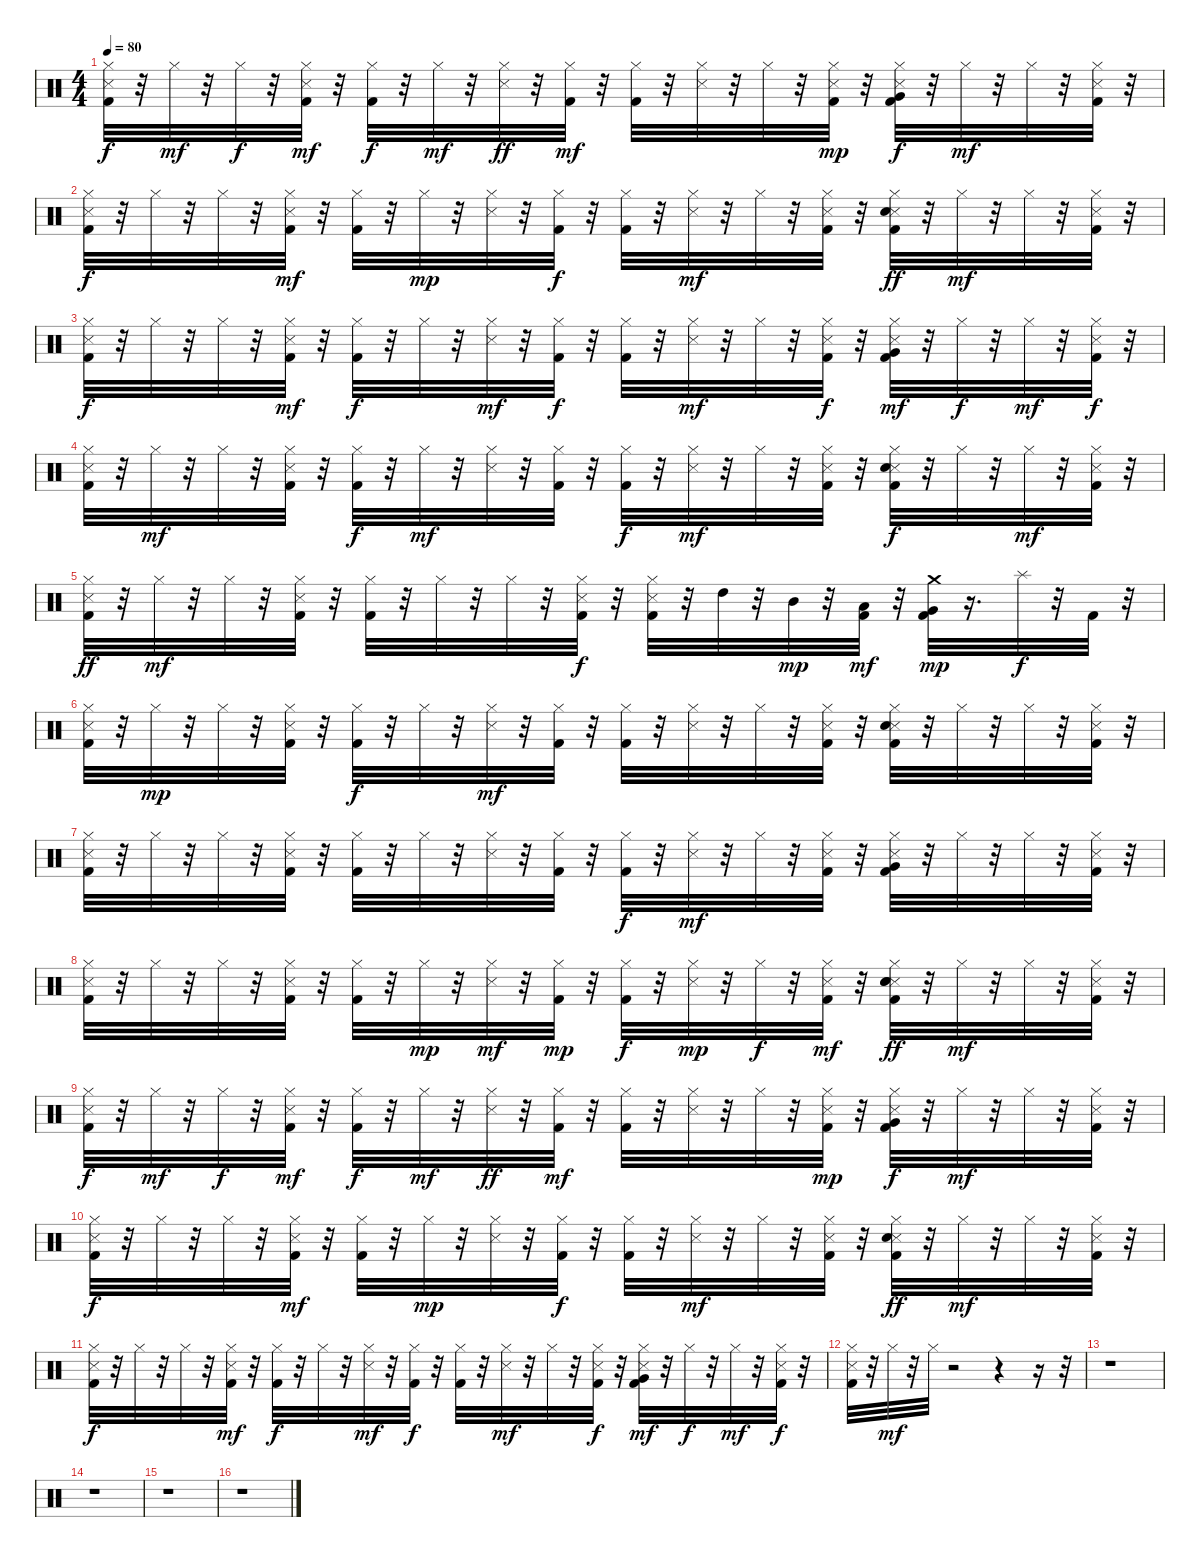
\track "" {instrument percussion}
\staff {score}
\articulation defaults
\ts (4 4)
\tempo 80
\clef neutral
\ks c
("Kick (hit) 2" "Snare (side stick) 3" "Hi-Hat (closed)").32{dy f} r.32 "Hi-Hat (closed)".32{dy mf} r.32 "Hi-Hat (closed)".32{dy f} r.32 ("Kick (hit) 2" "Snare (side stick) 3" "Hi-Hat (closed)").32{dy mf} r.32 ("Kick (hit) 2" "Hi-Hat (closed)").32{dy f} r.32 "Hi-Hat (closed)".32{dy mf} r.32 ("Snare (side stick) 3" "Hi-Hat (closed)").32{dy ff} r.32 ("Kick (hit) 2" "Hi-Hat (closed)").32{dy mf} r.32 ("Kick (hit) 2" "Hi-Hat (closed)").32 r.32 ("Snare (side stick) 3" "Hi-Hat (closed)").32 r.32 "Hi-Hat (closed)".32 r.32 ("Kick (hit) 2" "Snare (side stick) 3" "Hi-Hat (closed)").32{dy mp} r.32 ("Kick (hit) 2" "Snare (side stick) 3" "Very Low Tom (hit)" "Hi-Hat (closed)").32{dy f} r.32 "Hi-Hat (closed)".32{dy mf} r.32 "Hi-Hat (closed)".32 r.32 ("Kick (hit) 2" "Snare (side stick) 3" "Hi-Hat (closed)").32 r.32 |
("Kick (hit) 2" "Snare (side stick) 3" "Hi-Hat (closed)").32{dy f} r.32 "Hi-Hat (closed)".32 r.32 "Hi-Hat (closed)".32 r.32 ("Kick (hit) 2" "Snare (side stick) 3" "Hi-Hat (closed)").32{dy mf} r.32 ("Kick (hit) 2" "Hi-Hat (closed)").32 r.32 "Hi-Hat (closed)".32{dy mp} r.32 ("Snare (side stick) 3" "Hi-Hat (closed)").32 r.32 ("Kick (hit) 2" "Hi-Hat (closed)").32{dy f} r.32 ("Kick (hit) 2" "Hi-Hat (closed)").32 r.32 ("Snare (side stick) 3" "Hi-Hat (closed)").32{dy mf} r.32 "Hi-Hat (closed)".32 r.32 ("Kick (hit) 2" "Snare (side stick) 3" "Hi-Hat (closed)").32 r.32 ("Kick (hit) 2" "Snare (side stick) 3" "Snare (hit) 2" "Hi-Hat (closed)").32{dy ff} r.32 "Hi-Hat (closed)".32{dy mf} r.32 "Hi-Hat (closed)".32 r.32 ("Kick (hit) 2" "Snare (side stick) 3" "Hi-Hat (closed)").32 r.32 |
("Kick (hit) 2" "Snare (side stick) 3" "Hi-Hat (closed)").32{dy f} r.32 "Hi-Hat (closed)".32 r.32 "Hi-Hat (closed)".32 r.32 ("Kick (hit) 2" "Snare (side stick) 3" "Hi-Hat (closed)").32{dy mf} r.32 ("Kick (hit) 2" "Hi-Hat (closed)").32{dy f} r.32 "Hi-Hat (closed)".32 r.32 ("Snare (side stick) 3" "Hi-Hat (closed)").32{dy mf} r.32 ("Kick (hit) 2" "Hi-Hat (closed)").32{dy f} r.32 ("Kick (hit) 2" "Hi-Hat (closed)").32 r.32 ("Snare (side stick) 3" "Hi-Hat (closed)").32{dy mf} r.32 "Hi-Hat (closed)".32 r.32 ("Kick (hit) 2" "Snare (side stick) 3" "Hi-Hat (closed)").32{dy f} r.32 ("Kick (hit) 2" "Snare (side stick) 3" "Very Low Tom (hit)" "Hi-Hat (closed)").32{dy mf} r.32 "Hi-Hat (closed)".32{dy f} r.32 "Hi-Hat (closed)".32{dy mf} r.32 ("Kick (hit) 2" "Snare (side stick) 3" "Hi-Hat (closed)").32{dy f} r.32 |
("Kick (hit) 2" "Snare (side stick) 3" "Hi-Hat (closed)").32 r.32 "Hi-Hat (closed)".32{dy mf} r.32 "Hi-Hat (closed)".32 r.32 ("Kick (hit) 2" "Snare (side stick) 3" "Hi-Hat (closed)").32 r.32 ("Kick (hit) 2" "Hi-Hat (closed)").32{dy f} r.32 "Hi-Hat (closed)".32{dy mf} r.32 ("Snare (side stick) 3" "Hi-Hat (closed)").32 r.32 ("Kick (hit) 2" "Hi-Hat (closed)").32 r.32 ("Kick (hit) 2" "Hi-Hat (closed)").32{dy f} r.32 ("Snare (side stick) 3" "Hi-Hat (closed)").32{dy mf} r.32 "Hi-Hat (closed)".32 r.32 ("Kick (hit) 2" "Snare (side stick) 3" "Hi-Hat (closed)").32 r.32 ("Kick (hit) 2" "Snare (side stick) 3" "Snare (hit) 2" "Hi-Hat (closed)").32{dy f} r.32 "Hi-Hat (closed)".32 r.32 "Hi-Hat (closed)".32{dy mf} r.32 ("Kick (hit) 2" "Snare (side stick) 3" "Hi-Hat (closed)").32 r.32 |
("Kick (hit) 2" "Snare (side stick) 3" "Hi-Hat (closed)").32{dy ff} r.32 "Hi-Hat (closed)".32{dy mf} r.32 "Hi-Hat (closed)".32 r.32 ("Kick (hit) 2" "Snare (side stick) 3" "Hi-Hat (closed)").32 r.32 ("Kick (hit) 2" "Hi-Hat (closed)").32 r.32 "Hi-Hat (closed)".32 r.32 "Hi-Hat (closed)".32 r.32 ("Kick (hit) 2" "Snare (side stick) 3" "Hi-Hat (closed)").32{dy f} r.32 ("Kick (hit) 2" "Snare (side stick) 3" "Hi-Hat (closed)").32 r.32 "High Tom (hit)".32 r.32 "Mid Tom (hit)".32{dy mp} r.32 ("Kick (hit) 2" "Low Tom (hit)").32{dy mf} r.32 ("Kick (hit) 2" "Very Low Tom (hit)" "Crash medium (hit)").32{dy mp} r.16{d} "Splash (hit)".32{dy f} r.32 "Kick (hit) 2".32 r.32 |
("Kick (hit) 2" "Snare (side stick) 3" "Hi-Hat (closed)").32 r.32 "Hi-Hat (closed)".32{dy mp} r.32 "Hi-Hat (closed)".32 r.32 ("Kick (hit) 2" "Snare (side stick) 3" "Hi-Hat (closed)").32 r.32 ("Kick (hit) 2" "Hi-Hat (closed)").32{dy f} r.32 "Hi-Hat (closed)".32 r.32 ("Snare (side stick) 3" "Hi-Hat (closed)").32{dy mf} r.32 ("Kick (hit) 2" "Hi-Hat (closed)").32 r.32 ("Kick (hit) 2" "Hi-Hat (closed)").32 r.32 ("Snare (side stick) 3" "Hi-Hat (closed)").32 r.32 "Hi-Hat (closed)".32 r.32 ("Kick (hit) 2" "Snare (side stick) 3" "Hi-Hat (closed)").32 r.32 ("Kick (hit) 2" "Snare (side stick) 3" "Snare (hit) 2" "Hi-Hat (closed)").32 r.32 "Hi-Hat (closed)".32 r.32 "Hi-Hat (closed)".32 r.32 ("Kick (hit) 2" "Snare (side stick) 3" "Hi-Hat (closed)").32 r.32 |
("Kick (hit) 2" "Snare (side stick) 3" "Hi-Hat (closed)").32 r.32 "Hi-Hat (closed)".32 r.32 "Hi-Hat (closed)".32 r.32 ("Kick (hit) 2" "Snare (side stick) 3" "Hi-Hat (closed)").32 r.32 ("Kick (hit) 2" "Hi-Hat (closed)").32 r.32 "Hi-Hat (closed)".32 r.32 ("Snare (side stick) 3" "Hi-Hat (closed)").32 r.32 ("Kick (hit) 2" "Hi-Hat (closed)").32 r.32 ("Kick (hit) 2" "Hi-Hat (closed)").32{dy f} r.32 ("Snare (side stick) 3" "Hi-Hat (closed)").32{dy mf} r.32 "Hi-Hat (closed)".32 r.32 ("Kick (hit) 2" "Snare (side stick) 3" "Hi-Hat (closed)").32 r.32 ("Kick (hit) 2" "Snare (side stick) 3" "Very Low Tom (hit)" "Hi-Hat (closed)").32 r.32 "Hi-Hat (closed)".32 r.32 "Hi-Hat (closed)".32 r.32 ("Kick (hit) 2" "Snare (side stick) 3" "Hi-Hat (closed)").32 r.32 |
("Kick (hit) 2" "Snare (side stick) 3" "Hi-Hat (closed)").32 r.32 "Hi-Hat (closed)".32 r.32 "Hi-Hat (closed)".32 r.32 ("Kick (hit) 2" "Snare (side stick) 3" "Hi-Hat (closed)").32 r.32 ("Kick (hit) 2" "Hi-Hat (closed)").32 r.32 "Hi-Hat (closed)".32{dy mp} r.32 ("Snare (side stick) 3" "Hi-Hat (closed)").32{dy mf} r.32 ("Kick (hit) 2" "Hi-Hat (closed)").32{dy mp} r.32 ("Kick (hit) 2" "Hi-Hat (closed)").32{dy f} r.32 ("Snare (side stick) 3" "Hi-Hat (closed)").32{dy mp} r.32 "Hi-Hat (closed)".32{dy f} r.32 ("Kick (hit) 2" "Snare (side stick) 3" "Hi-Hat (closed)").32{dy mf} r.32 ("Kick (hit) 2" "Snare (side stick) 3" "Snare (hit) 2" "Electric Snare (hit)" "Hi-Hat (closed)").32{dy ff} r.32 "Hi-Hat (closed)".32{dy mf} r.32 "Hi-Hat (closed)".32 r.32 ("Kick (hit) 2" "Snare (side stick) 3" "Hi-Hat (closed)").32 r.32 |
("Kick (hit) 2" "Snare (side stick) 3" "Hi-Hat (closed)").32{dy f} r.32 "Hi-Hat (closed)".32{dy mf} r.32 "Hi-Hat (closed)".32{dy f} r.32 ("Kick (hit) 2" "Snare (side stick) 3" "Hi-Hat (closed)").32{dy mf} r.32 ("Kick (hit) 2" "Hi-Hat (closed)").32{dy f} r.32 "Hi-Hat (closed)".32{dy mf} r.32 ("Snare (side stick) 3" "Hi-Hat (closed)").32{dy ff} r.32 ("Kick (hit) 2" "Hi-Hat (closed)").32{dy mf} r.32 ("Kick (hit) 2" "Hi-Hat (closed)").32 r.32 ("Snare (side stick) 3" "Hi-Hat (closed)").32 r.32 "Hi-Hat (closed)".32 r.32 ("Kick (hit) 2" "Snare (side stick) 3" "Hi-Hat (closed)").32{dy mp} r.32 ("Kick (hit) 2" "Snare (side stick) 3" "Very Low Tom (hit)" "Hi-Hat (closed)").32{dy f} r.32 "Hi-Hat (closed)".32{dy mf} r.32 "Hi-Hat (closed)".32 r.32 ("Kick (hit) 2" "Snare (side stick) 3" "Hi-Hat (closed)").32 r.32 |
("Kick (hit) 2" "Snare (side stick) 3" "Hi-Hat (closed)").32{dy f} r.32 "Hi-Hat (closed)".32 r.32 "Hi-Hat (closed)".32 r.32 ("Kick (hit) 2" "Snare (side stick) 3" "Hi-Hat (closed)").32{dy mf} r.32 ("Kick (hit) 2" "Hi-Hat (closed)").32 r.32 "Hi-Hat (closed)".32{dy mp} r.32 ("Snare (side stick) 3" "Hi-Hat (closed)").32 r.32 ("Kick (hit) 2" "Hi-Hat (closed)").32{dy f} r.32 ("Kick (hit) 2" "Hi-Hat (closed)").32 r.32 ("Snare (side stick) 3" "Hi-Hat (closed)").32{dy mf} r.32 "Hi-Hat (closed)".32 r.32 ("Kick (hit) 2" "Snare (side stick) 3" "Hi-Hat (closed)").32 r.32 ("Kick (hit) 2" "Snare (side stick) 3" "Snare (hit) 2" "Hi-Hat (closed)").32{dy ff} r.32 "Hi-Hat (closed)".32{dy mf} r.32 "Hi-Hat (closed)".32 r.32 ("Kick (hit) 2" "Snare (side stick) 3" "Hi-Hat (closed)").32 r.32 |
("Kick (hit) 2" "Snare (side stick) 3" "Hi-Hat (closed)").32{dy f} r.32 "Hi-Hat (closed)".32 r.32 "Hi-Hat (closed)".32 r.32 ("Kick (hit) 2" "Snare (side stick) 3" "Hi-Hat (closed)").32{dy mf} r.32 ("Kick (hit) 2" "Hi-Hat (closed)").32{dy f} r.32 "Hi-Hat (closed)".32 r.32 ("Snare (side stick) 3" "Hi-Hat (closed)").32{dy mf} r.32 ("Kick (hit) 2" "Hi-Hat (closed)").32{dy f} r.32 ("Kick (hit) 2" "Hi-Hat (closed)").32 r.32 ("Snare (side stick) 3" "Hi-Hat (closed)").32{dy mf} r.32 "Hi-Hat (closed)".32 r.32 ("Kick (hit) 2" "Snare (side stick) 3" "Hi-Hat (closed)").32{dy f} r.32 ("Kick (hit) 2" "Snare (side stick) 3" "Very Low Tom (hit)" "Hi-Hat (closed)").32{dy mf} r.32 "Hi-Hat (closed)".32{dy f} r.32 "Hi-Hat (closed)".32{dy mf} r.32 ("Kick (hit) 2" "Snare (side stick) 3" "Hi-Hat (closed)").32{dy f} r.32 |
("Kick (hit) 2" "Snare (side stick) 3" "Hi-Hat (closed)").32 r.32 "Hi-Hat (closed)".32{dy mf} r.32 "Hi-Hat (closed)".32 r.2 r.4 r.16 r.32 |
r.1 |
r.1 |
r.1 |
r.1
